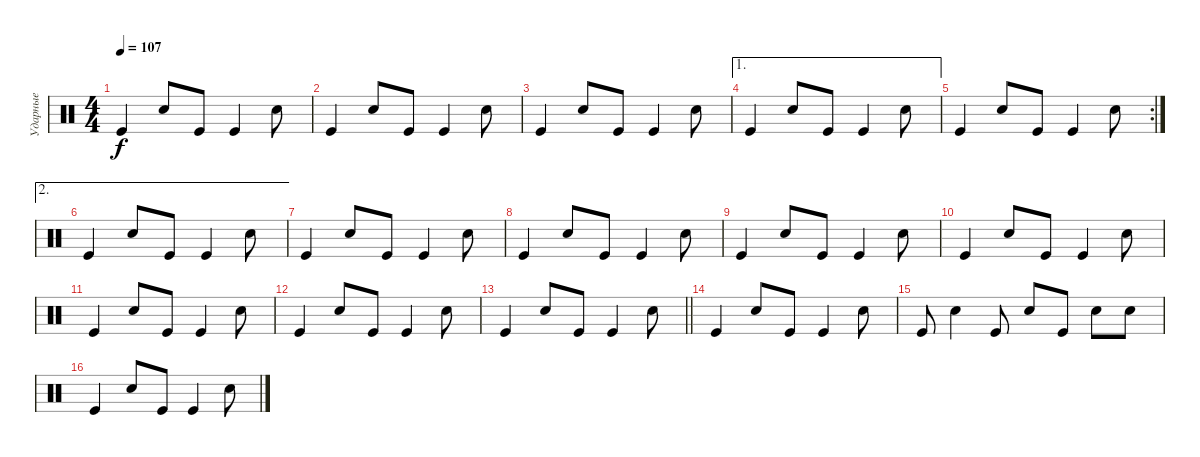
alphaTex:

\track ("Ударные" "Ударные") {instrument percussion}
\staff {score}
\articulation defaults
\ts (4 4)
\tempo 107
\clef neutral
\ks c "Kick (hit)".4{dy f} "Snare (hit) 2".8 "Kick (hit)".8 "Kick (hit)".4 "Snare (hit) 2".8
|
"Kick (hit)".4 "Snare (hit) 2".8 "Kick (hit)".8 "Kick (hit)".4 "Snare (hit) 2".8 |
"Kick (hit)".4 "Snare (hit) 2".8 "Kick (hit)".8 "Kick (hit)".4 "Snare (hit) 2".8 |
\ae 1 "Kick (hit)".4 "Snare (hit) 2".8 "Kick (hit)".8 "Kick (hit)".4 "Snare (hit) 2".8
|
\rc 2 "Kick (hit)".4 "Snare (hit) 2".8 "Kick (hit)".8 "Kick (hit)".4 "Snare (hit) 2".8
|
\ae 2 "Kick (hit)".4 "Snare (hit) 2".8 "Kick (hit)".8 "Kick (hit)".4 "Snare (hit) 2".8
|
"Kick (hit)".4 "Snare (hit) 2".8 "Kick (hit)".8 "Kick (hit)".4 "Snare (hit) 2".8 |
"Kick (hit)".4 "Snare (hit) 2".8 "Kick (hit)".8 "Kick (hit)".4 "Snare (hit) 2".8 |
"Kick (hit)".4 "Snare (hit) 2".8 "Kick (hit)".8 "Kick (hit)".4 "Snare (hit) 2".8 |
"Kick (hit)".4 "Snare (hit) 2".8 "Kick (hit)".8 "Kick (hit)".4 "Snare (hit) 2".8 |
"Kick (hit)".4 "Snare (hit) 2".8 "Kick (hit)".8 "Kick (hit)".4 "Snare (hit) 2".8 |
"Kick (hit)".4 "Snare (hit) 2".8 "Kick (hit)".8 "Kick (hit)".4 "Snare (hit) 2".8 |
\barLineRight lightlight "Kick (hit)".4 "Snare (hit) 2".8 "Kick (hit)".8 "Kick (hit)".4 "Snare (hit) 2".8
|
"Kick (hit)".4 "Snare (hit) 2".8 "Kick (hit)".8 "Kick (hit)".4 "Snare (hit) 2".8 |
"Kick (hit)".8 "Snare (hit) 2".4 "Kick (hit)".8 "Snare (hit) 2".8 "Kick (hit)".8 "Snare (hit) 2".8 "Snare (hit) 2".8 |
"Kick (hit)".4 "Snare (hit) 2".8 "Kick (hit)".8 "Kick (hit)".4 "Snare (hit) 2".8
